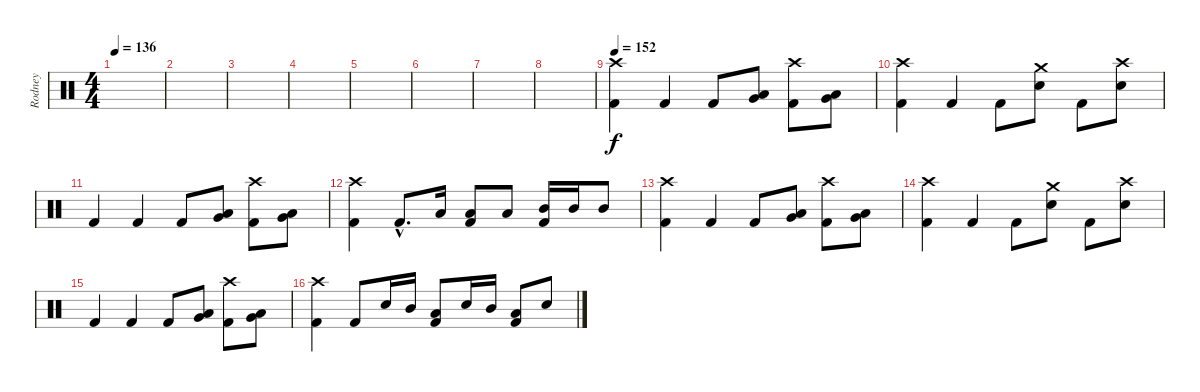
\track ("Rodney" "Rodney") {instrument percussion}
\staff {score}
\articulation defaults
\ts (4 4)
\tempo 136
\clef neutral
\ks c
|
|
|
|
|
|
|
|
\tempo 140
\tempo 152
("Crash high (hit)" "Kick (hit) 2").4 "Kick (hit) 2".4 "Kick (hit) 2".8 ("Low Tom (hit)" "Very Low Tom (hit)").8 ("Crash high (hit)" "Kick (hit) 2").8 ("Low Tom (hit)" "Very Low Tom (hit)").8 |
("Crash high (hit)" "Kick (hit) 2").4 "Kick (hit) 2".4 "Kick (hit) 2".8 ("Crash medium (hit)" "Snare (hit) 2").8 "Kick (hit) 2".8 ("Crash high (hit)" "Snare (hit) 2").8 |
"Kick (hit) 2".4 "Kick (hit) 2".4 "Kick (hit) 2".8 ("Low Tom (hit)" "Very Low Tom (hit)").8 ("Crash high (hit)" "Kick (hit) 2").8 ("Low Tom (hit)" "Very Low Tom (hit)").8 |
("Crash high (hit)" "Kick (hit) 2").4 "Kick (hit) 2"{hac}.8{d} "Low Tom (hit)".16 ("Low Tom (hit)" "Kick (hit) 2").8 "Low Tom (hit)".8 ("Mid Tom (hit)" "Kick (hit) 2").16 "Mid Tom (hit)".16 "Mid Tom (hit)".8 |
("Crash high (hit)" "Kick (hit) 2").4 "Kick (hit) 2".4 "Kick (hit) 2".8 ("Low Tom (hit)" "Very Low Tom (hit)").8 ("Crash high (hit)" "Kick (hit) 2").8 ("Low Tom (hit)" "Very Low Tom (hit)").8 |
("Crash high (hit)" "Kick (hit) 2").4 "Kick (hit) 2".4 "Kick (hit) 2".8 ("Crash medium (hit)" "Snare (hit) 2").8 "Kick (hit) 2".8 ("Crash high (hit)" "Snare (hit) 2").8 |
"Kick (hit) 2".4 "Kick (hit) 2".4 "Kick (hit) 2".8 ("Low Tom (hit)" "Very Low Tom (hit)").8 ("Crash high (hit)" "Kick (hit) 2").8 ("Low Tom (hit)" "Very Low Tom (hit)").8 |
("Crash high (hit)" "Kick (hit) 2").4 "Kick (hit) 2".8 "Snare (hit) 2".16 "Mid Tom (hit)".16 ("Low Tom (hit)" "Kick (hit) 2").8 "Snare (hit) 2".16 "Mid Tom (hit)".16 ("Low Tom (hit)" "Kick (hit) 2").8 "Snare (hit) 2".8
